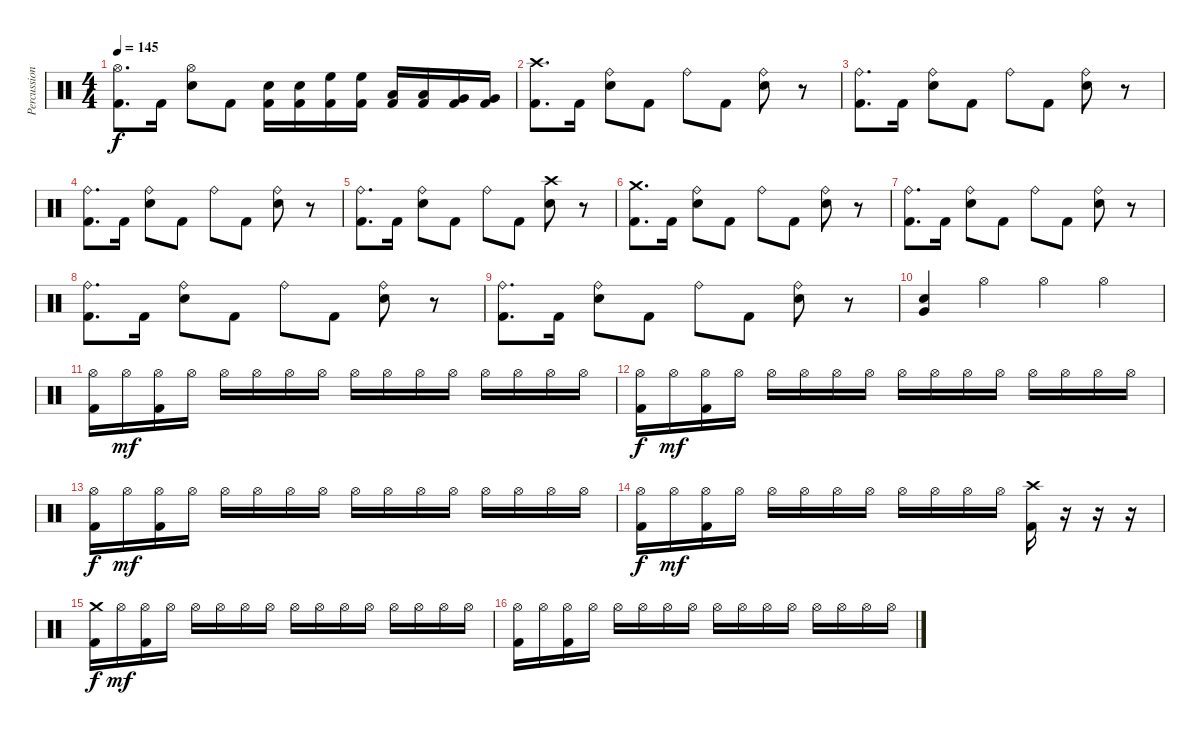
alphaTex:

\track ("Percussion" "Percussion") {instrument percussion}
\staff {score}
\articulation defaults
\ts (4 4)
\tempo 145
\clef neutral
\ks c
("Hi-Hat (open)" "Kick (hit) 2").8{d dy f} "Kick (hit) 2".16 ("Hi-Hat (open)" "Snare (hit) 2").8 "Kick (hit) 2".8 ("Snare (hit) 2" "Kick (hit) 2").16 ("Snare (hit) 2" "Kick (hit) 2").16 ("High Floor Tom (hit)" "Kick (hit) 2").16 ("High Floor Tom (hit)" "Kick (hit) 2").16 ("Low Tom (hit)" "Kick (hit) 2").16 ("Low Tom (hit)" "Kick (hit) 2").16 ("Very Low Tom (hit)" "Kick (hit) 2").16 ("Very Low Tom (hit)" "Kick (hit) 2").16 |
("Crash high (hit)" "Kick (hit) 2").8{d} "Kick (hit) 2".16 ("Ride (bell)" "Snare (hit) 2").8 "Kick (hit) 2".8 "Ride (bell)".8 "Kick (hit) 2".8 ("Ride (bell)" "Snare (hit) 2").8 r.8 |
("Ride (bell)" "Kick (hit) 2").8{d} "Kick (hit) 2".16 ("Ride (bell)" "Snare (hit) 2").8 "Kick (hit) 2".8 "Ride (bell)".8 "Kick (hit) 2".8 ("Ride (bell)" "Snare (hit) 2").8 r.8 |
("Ride (bell)" "Kick (hit) 2").8{d} "Kick (hit) 2".16 ("Ride (bell)" "Snare (hit) 2").8 "Kick (hit) 2".8 "Ride (bell)".8 "Kick (hit) 2".8 ("Ride (bell)" "Snare (hit) 2").8 r.8 |
("Ride (bell)" "Kick (hit) 2").8{d} "Kick (hit) 2".16 ("Ride (bell)" "Snare (hit) 2").8 "Kick (hit) 2".8 "Ride (bell)".8 "Kick (hit) 2".8 ("Crash high (hit)" "Snare (hit) 2").8 r.8 |
("Crash medium (hit)" "Kick (hit) 2").8{d} "Kick (hit) 2".16 ("Ride (bell)" "Snare (hit) 2").8 "Kick (hit) 2".8 "Ride (bell)".8 "Kick (hit) 2".8 ("Ride (bell)" "Snare (hit) 2").8 r.8 |
("Ride (bell)" "Kick (hit) 2").8{d} "Kick (hit) 2".16 ("Ride (bell)" "Snare (hit) 2").8 "Kick (hit) 2".8 "Ride (bell)".8 "Kick (hit) 2".8 ("Ride (bell)" "Snare (hit) 2").8 r.8 |
("Ride (bell)" "Kick (hit) 2").8{d} "Kick (hit) 2".16 ("Ride (bell)" "Snare (hit) 2").8 "Kick (hit) 2".8 "Ride (bell)".8 "Kick (hit) 2".8 ("Ride (bell)" "Snare (hit) 2").8 r.8 |
("Ride (bell)" "Kick (hit) 2").8{d} "Kick (hit) 2".16 ("Ride (bell)" "Snare (hit) 2").8 "Kick (hit) 2".8 "Ride (bell)".8 "Kick (hit) 2".8 ("Ride (bell)" "Snare (hit) 2").8 r.8 |
("Very Low Tom (hit)" "Snare (hit) 2").4 "Hi-Hat (open)".4 "Hi-Hat (open)".4 "Hi-Hat (open)".4 |
("Hi-Hat (open)" "Kick (hit) 2").16 "Hi-Hat (open)".16{dy mf} ("Hi-Hat (open)" "Kick (hit) 2").16 "Hi-Hat (open)".16 "Hi-Hat (open)".16 "Hi-Hat (open)".16 "Hi-Hat (open)".16 "Hi-Hat (open)".16 "Hi-Hat (open)".16 "Hi-Hat (open)".16 "Hi-Hat (open)".16 "Hi-Hat (open)".16 "Hi-Hat (open)".16 "Hi-Hat (open)".16 "Hi-Hat (open)".16 "Hi-Hat (open)".16 |
("Hi-Hat (open)" "Kick (hit) 2").16{dy f} "Hi-Hat (open)".16{dy mf} ("Hi-Hat (open)" "Kick (hit) 2").16 "Hi-Hat (open)".16 "Hi-Hat (open)".16 "Hi-Hat (open)".16 "Hi-Hat (open)".16 "Hi-Hat (open)".16 "Hi-Hat (open)".16 "Hi-Hat (open)".16 "Hi-Hat (open)".16 "Hi-Hat (open)".16 "Hi-Hat (open)".16 "Hi-Hat (open)".16 "Hi-Hat (open)".16 "Hi-Hat (open)".16 |
("Hi-Hat (open)" "Kick (hit) 2").16{dy f} "Hi-Hat (open)".16{dy mf} ("Hi-Hat (open)" "Kick (hit) 2").16 "Hi-Hat (open)".16 "Hi-Hat (open)".16 "Hi-Hat (open)".16 "Hi-Hat (open)".16 "Hi-Hat (open)".16 "Hi-Hat (open)".16 "Hi-Hat (open)".16 "Hi-Hat (open)".16 "Hi-Hat (open)".16 "Hi-Hat (open)".16 "Hi-Hat (open)".16 "Hi-Hat (open)".16 "Hi-Hat (open)".16 |
("Hi-Hat (open)" "Kick (hit) 2").16{dy f} "Hi-Hat (open)".16{dy mf} ("Hi-Hat (open)" "Kick (hit) 2").16 "Hi-Hat (open)".16 "Hi-Hat (open)".16 "Hi-Hat (open)".16 "Hi-Hat (open)".16 "Hi-Hat (open)".16 "Hi-Hat (open)".16 "Hi-Hat (open)".16 "Hi-Hat (open)".16 "Hi-Hat (open)".16 ("Crash high (hit)" "Kick (hit) 2").16 r.16 r.16 r.16 |
("Crash medium (hit)" "Kick (hit) 2").16{dy f} "Hi-Hat (open)".16{dy mf} ("Hi-Hat (open)" "Kick (hit) 2").16 "Hi-Hat (open)".16 "Hi-Hat (open)".16 "Hi-Hat (open)".16 "Hi-Hat (open)".16 "Hi-Hat (open)".16 "Hi-Hat (open)".16 "Hi-Hat (open)".16 "Hi-Hat (open)".16 "Hi-Hat (open)".16 "Hi-Hat (open)".16 "Hi-Hat (open)".16 "Hi-Hat (open)".16 "Hi-Hat (open)".16 |
("Hi-Hat (open)" "Kick (hit) 2").16 "Hi-Hat (open)".16 ("Hi-Hat (open)" "Kick (hit) 2").16 "Hi-Hat (open)".16 "Hi-Hat (open)".16 "Hi-Hat (open)".16 "Hi-Hat (open)".16 "Hi-Hat (open)".16 "Hi-Hat (open)".16 "Hi-Hat (open)".16 "Hi-Hat (open)".16 "Hi-Hat (open)".16 "Hi-Hat (open)".16 "Hi-Hat (open)".16 "Hi-Hat (open)".16 "Hi-Hat (open)".16
